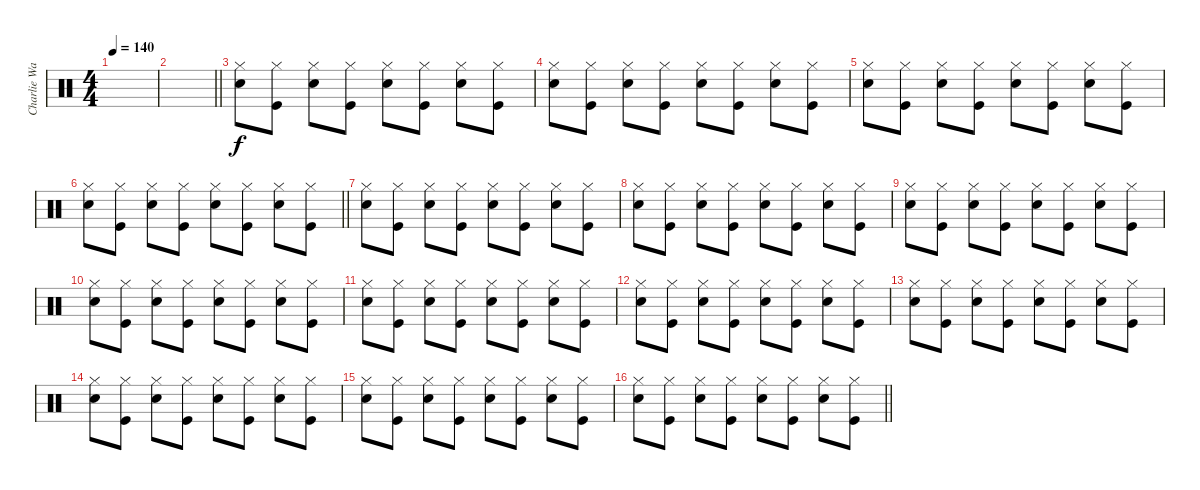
\track ("Charlie Watts" "Charlie Wa") {instrument percussion}
\staff {score}
\articulation defaults
\ts (4 4)
\tempo 140
\clef neutral
\ks c
|
\barLineRight lightlight
|
("Snare (hit) 2" "Hi-Hat (closed)").8 ("Kick (hit)" "Hi-Hat (closed)").8 ("Snare (hit) 2" "Hi-Hat (closed)").8 ("Kick (hit)" "Hi-Hat (closed)").8 ("Snare (hit) 2" "Hi-Hat (closed)").8 ("Kick (hit)" "Hi-Hat (closed)").8 ("Snare (hit) 2" "Hi-Hat (closed)").8 ("Kick (hit)" "Hi-Hat (closed)").8 |
("Snare (hit) 2" "Hi-Hat (closed)").8 ("Kick (hit)" "Hi-Hat (closed)").8 ("Snare (hit) 2" "Hi-Hat (closed)").8 ("Kick (hit)" "Hi-Hat (closed)").8 ("Snare (hit) 2" "Hi-Hat (closed)").8 ("Kick (hit)" "Hi-Hat (closed)").8 ("Snare (hit) 2" "Hi-Hat (closed)").8 ("Kick (hit)" "Hi-Hat (closed)").8 |
("Snare (hit) 2" "Hi-Hat (closed)").8 ("Kick (hit)" "Hi-Hat (closed)").8 ("Snare (hit) 2" "Hi-Hat (closed)").8 ("Kick (hit)" "Hi-Hat (closed)").8 ("Snare (hit) 2" "Hi-Hat (closed)").8 ("Kick (hit)" "Hi-Hat (closed)").8 ("Snare (hit) 2" "Hi-Hat (closed)").8 ("Kick (hit)" "Hi-Hat (closed)").8 |
\barLineRight lightlight
("Snare (hit) 2" "Hi-Hat (closed)").8 ("Kick (hit)" "Hi-Hat (closed)").8 ("Snare (hit) 2" "Hi-Hat (closed)").8 ("Kick (hit)" "Hi-Hat (closed)").8 ("Snare (hit) 2" "Hi-Hat (closed)").8 ("Kick (hit)" "Hi-Hat (closed)").8 ("Snare (hit) 2" "Hi-Hat (closed)").8 ("Kick (hit)" "Hi-Hat (closed)").8 |
("Snare (hit) 2" "Hi-Hat (closed)").8 ("Kick (hit)" "Hi-Hat (closed)").8 ("Snare (hit) 2" "Hi-Hat (closed)").8 ("Kick (hit)" "Hi-Hat (closed)").8 ("Snare (hit) 2" "Hi-Hat (closed)").8 ("Kick (hit)" "Hi-Hat (closed)").8 ("Snare (hit) 2" "Hi-Hat (closed)").8 ("Kick (hit)" "Hi-Hat (closed)").8 |
("Snare (hit) 2" "Hi-Hat (closed)").8 ("Kick (hit)" "Hi-Hat (closed)").8 ("Snare (hit) 2" "Hi-Hat (closed)").8 ("Kick (hit)" "Hi-Hat (closed)").8 ("Snare (hit) 2" "Hi-Hat (closed)").8 ("Kick (hit)" "Hi-Hat (closed)").8 ("Snare (hit) 2" "Hi-Hat (closed)").8 ("Kick (hit)" "Hi-Hat (closed)").8 |
("Snare (hit) 2" "Hi-Hat (closed)").8 ("Kick (hit)" "Hi-Hat (closed)").8 ("Snare (hit) 2" "Hi-Hat (closed)").8 ("Kick (hit)" "Hi-Hat (closed)").8 ("Snare (hit) 2" "Hi-Hat (closed)").8 ("Kick (hit)" "Hi-Hat (closed)").8 ("Snare (hit) 2" "Hi-Hat (closed)").8 ("Kick (hit)" "Hi-Hat (closed)").8 |
("Snare (hit) 2" "Hi-Hat (closed)").8 ("Kick (hit)" "Hi-Hat (closed)").8 ("Snare (hit) 2" "Hi-Hat (closed)").8 ("Kick (hit)" "Hi-Hat (closed)").8 ("Snare (hit) 2" "Hi-Hat (closed)").8 ("Kick (hit)" "Hi-Hat (closed)").8 ("Snare (hit) 2" "Hi-Hat (closed)").8 ("Kick (hit)" "Hi-Hat (closed)").8 |
("Snare (hit) 2" "Hi-Hat (closed)").8 ("Kick (hit)" "Hi-Hat (closed)").8 ("Snare (hit) 2" "Hi-Hat (closed)").8 ("Kick (hit)" "Hi-Hat (closed)").8 ("Snare (hit) 2" "Hi-Hat (closed)").8 ("Kick (hit)" "Hi-Hat (closed)").8 ("Snare (hit) 2" "Hi-Hat (closed)").8 ("Kick (hit)" "Hi-Hat (closed)").8 |
("Snare (hit) 2" "Hi-Hat (closed)").8 ("Kick (hit)" "Hi-Hat (closed)").8 ("Snare (hit) 2" "Hi-Hat (closed)").8 ("Kick (hit)" "Hi-Hat (closed)").8 ("Snare (hit) 2" "Hi-Hat (closed)").8 ("Kick (hit)" "Hi-Hat (closed)").8 ("Snare (hit) 2" "Hi-Hat (closed)").8 ("Kick (hit)" "Hi-Hat (closed)").8 |
("Snare (hit) 2" "Hi-Hat (closed)").8 ("Kick (hit)" "Hi-Hat (closed)").8 ("Snare (hit) 2" "Hi-Hat (closed)").8 ("Kick (hit)" "Hi-Hat (closed)").8 ("Snare (hit) 2" "Hi-Hat (closed)").8 ("Kick (hit)" "Hi-Hat (closed)").8 ("Snare (hit) 2" "Hi-Hat (closed)").8 ("Kick (hit)" "Hi-Hat (closed)").8 |
("Snare (hit) 2" "Hi-Hat (closed)").8 ("Kick (hit)" "Hi-Hat (closed)").8 ("Snare (hit) 2" "Hi-Hat (closed)").8 ("Kick (hit)" "Hi-Hat (closed)").8 ("Snare (hit) 2" "Hi-Hat (closed)").8 ("Kick (hit)" "Hi-Hat (closed)").8 ("Snare (hit) 2" "Hi-Hat (closed)").8 ("Kick (hit)" "Hi-Hat (closed)").8 |
("Snare (hit) 2" "Hi-Hat (closed)").8 ("Kick (hit)" "Hi-Hat (closed)").8 ("Snare (hit) 2" "Hi-Hat (closed)").8 ("Kick (hit)" "Hi-Hat (closed)").8 ("Snare (hit) 2" "Hi-Hat (closed)").8 ("Kick (hit)" "Hi-Hat (closed)").8 ("Snare (hit) 2" "Hi-Hat (closed)").8 ("Kick (hit)" "Hi-Hat (closed)").8 |
\barLineRight lightlight
("Snare (hit) 2" "Hi-Hat (closed)").8 ("Kick (hit)" "Hi-Hat (closed)").8 ("Snare (hit) 2" "Hi-Hat (closed)").8 ("Kick (hit)" "Hi-Hat (closed)").8 ("Snare (hit) 2" "Hi-Hat (closed)").8 ("Kick (hit)" "Hi-Hat (closed)").8 ("Snare (hit) 2" "Hi-Hat (closed)").8 ("Kick (hit)" "Hi-Hat (closed)").8
